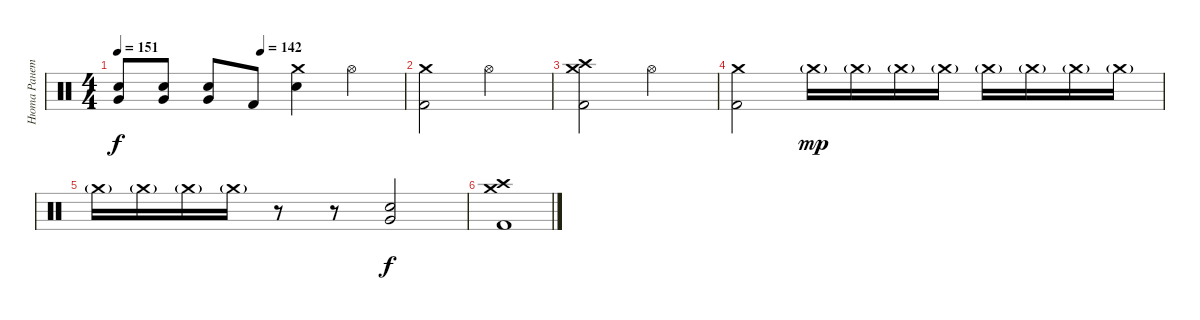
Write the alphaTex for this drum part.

\track ("Нюта Ранетка" "Нюта Ранет") {instrument percussion}
\staff {score}
\articulation defaults
\ts (4 4)
\tempo 151
\tempo (142 0.5)
\clef neutral
\ks c
("Very Low Tom (hit)" "Snare (hit) 2").8{dy f} ("Very Low Tom (hit)" "Snare (hit) 2").8 ("Very Low Tom (hit)" "Snare (hit) 2").8 "Kick (hit) 2".8 ("Crash medium (hit)" "Snare (hit) 2").4 "Hi-Hat (open)".4 |
("Crash medium (hit)" "Kick (hit) 2").2 "Hi-Hat (open)".2 |
("Crash medium (hit)" "Kick (hit) 2" "Crash high (hit)").2 "Hi-Hat (open)".2 |
("Crash medium (hit)" "Kick (hit) 2").2 "Crash medium (hit)"{g}.16{dy mp} "Crash medium (hit)"{g}.16 "Crash medium (hit)"{g}.16 "Crash medium (hit)"{g}.16 "Crash medium (hit)"{g}.16 "Crash medium (hit)"{g}.16 "Crash medium (hit)"{g}.16 "Crash medium (hit)"{g}.16 |
"Crash medium (hit)"{g}.16 "Crash medium (hit)"{g}.16 "Crash medium (hit)"{g}.16 "Crash medium (hit)"{g}.16 r.8 r.8 ("Snare (hit) 2" "Very Low Tom (hit)").2{dy f} |
("Crash medium (hit)" "Crash high (hit)" "Kick (hit) 2").1
